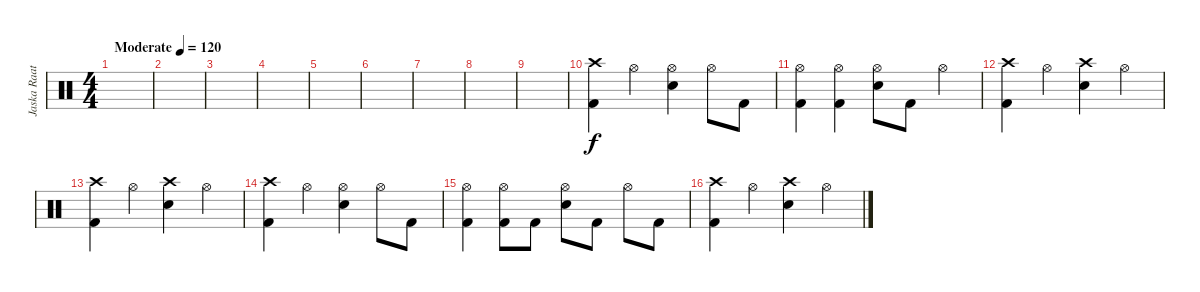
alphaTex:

\track ("Jaska Raatikainen" "Jaska Raat") {instrument percussion}
\staff {score}
\articulation defaults
\ts (4 4)
\tempo (120 "Moderate")
\clef neutral
\ks c
|
|
|
|
|
|
|
|
|
("Crash high (hit)" "Kick (hit) 2").4 "Hi-Hat (open)".4 ("Hi-Hat (open)" "Snare (hit) 2").4 "Hi-Hat (open)".8 "Kick (hit) 2".8 |
("Hi-Hat (open)" "Kick (hit) 2").4 ("Hi-Hat (open)" "Kick (hit) 2").4 ("Hi-Hat (open)" "Snare (hit) 2").8 "Kick (hit) 2".8 "Hi-Hat (open)".4 |
("Crash high (hit)" "Kick (hit) 2").4 "Hi-Hat (open)".4 ("Crash high (hit)" "Snare (hit) 2").4 "Hi-Hat (open)".4 |
("Crash high (hit)" "Kick (hit) 2").4 "Hi-Hat (open)".4 ("Crash high (hit)" "Snare (hit) 2").4 "Hi-Hat (open)".4 |
("Crash high (hit)" "Kick (hit) 2").4 "Hi-Hat (open)".4 ("Hi-Hat (open)" "Snare (hit) 2").4 "Hi-Hat (open)".8 "Kick (hit) 2".8 |
("Hi-Hat (open)" "Kick (hit) 2").4 ("Hi-Hat (open)" "Kick (hit) 2").8 "Kick (hit) 2".8 ("Hi-Hat (open)" "Snare (hit) 2").8 "Kick (hit) 2".8 "Hi-Hat (open)".8 "Kick (hit) 2".8 |
("Crash high (hit)" "Kick (hit) 2").4 "Hi-Hat (open)".4 ("Crash high (hit)" "Snare (hit) 2").4 "Hi-Hat (open)".4
